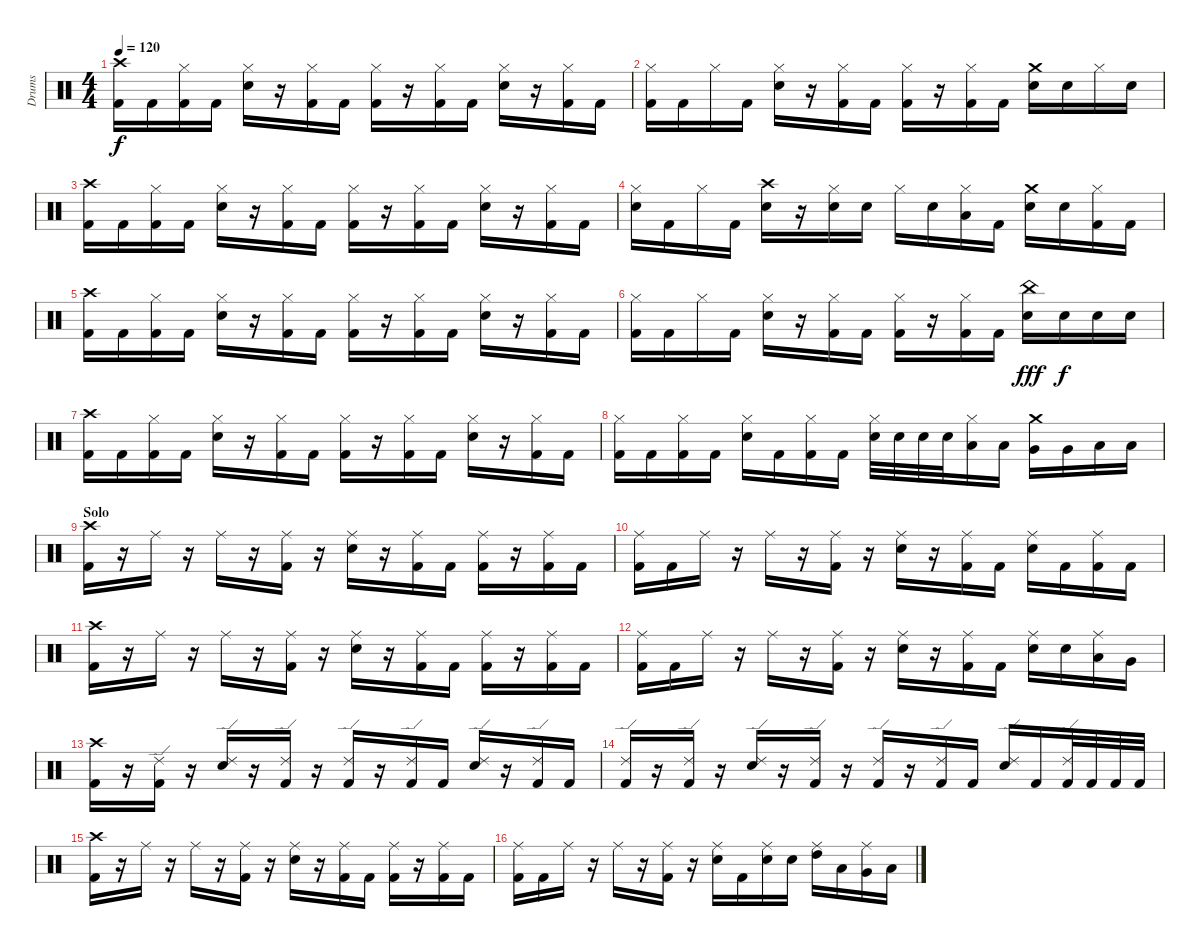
\track ("Drums" "Drums") {instrument percussion}
\staff {score}
\articulation defaults
\ts (4 4)
\tempo 120
\clef neutral
\ks c
("Crash high (hit)" "Kick (hit) 2").16{dy f} "Kick (hit) 2".16 ("Hi-Hat (closed)" "Kick (hit) 2").16 "Kick (hit) 2".16 ("Hi-Hat (closed)" "Snare (hit) 2").16 r.16 ("Hi-Hat (closed)" "Kick (hit) 2").16 "Kick (hit) 2".16 ("Hi-Hat (closed)" "Kick (hit) 2").16 r.16 ("Hi-Hat (closed)" "Kick (hit) 2").16 "Kick (hit) 2".16 ("Hi-Hat (closed)" "Snare (hit) 2").16 r.16 ("Hi-Hat (closed)" "Kick (hit) 2").16 "Kick (hit) 2".16 |
("Hi-Hat (closed)" "Kick (hit) 2").16 "Kick (hit) 2".16 "Hi-Hat (closed)".16 "Kick (hit) 2".16 ("Hi-Hat (closed)" "Snare (hit) 2").16 r.16 ("Hi-Hat (closed)" "Kick (hit) 2").16 "Kick (hit) 2".16 ("Hi-Hat (closed)" "Kick (hit) 2").16 r.16 ("Hi-Hat (closed)" "Kick (hit) 2").16 "Kick (hit) 2".16 ("Crash medium (hit)" "Snare (hit) 2").16 "Snare (hit) 2".16 "Hi-Hat (closed)".16 "Snare (hit) 2".16 |
("Crash high (hit)" "Kick (hit) 2").16 "Kick (hit) 2".16 ("Hi-Hat (closed)" "Kick (hit) 2").16 "Kick (hit) 2".16 ("Hi-Hat (closed)" "Snare (hit) 2").16 r.16 ("Hi-Hat (closed)" "Kick (hit) 2").16 "Kick (hit) 2".16 ("Hi-Hat (closed)" "Kick (hit) 2").16 r.16 ("Hi-Hat (closed)" "Kick (hit) 2").16 "Kick (hit) 2".16 ("Hi-Hat (closed)" "Snare (hit) 2").16 r.16 ("Hi-Hat (closed)" "Kick (hit) 2").16 "Kick (hit) 2".16 |
("Hi-Hat (closed)" "Snare (hit) 2").16 "Kick (hit) 2".16 "Hi-Hat (closed)".16 "Kick (hit) 2".16 ("Crash high (hit)" "Snare (hit) 2").16 r.16 ("Hi-Hat (closed)" "Snare (hit) 2").16 "Snare (hit) 2".16 "Hi-Hat (closed)".16 "Snare (hit) 2".16 ("Hi-Hat (closed)" "Low Tom (hit)").16 "Kick (hit) 2".16 ("Crash medium (hit)" "Snare (hit) 2").16 "Snare (hit) 2".16 ("Hi-Hat (closed)" "Kick (hit) 2").16 "Kick (hit) 2".16 |
("Crash high (hit)" "Kick (hit) 2").16 "Kick (hit) 2".16 ("Hi-Hat (closed)" "Kick (hit) 2").16 "Kick (hit) 2".16 ("Hi-Hat (closed)" "Snare (hit) 2").16 r.16 ("Hi-Hat (closed)" "Kick (hit) 2").16 "Kick (hit) 2".16 ("Hi-Hat (closed)" "Kick (hit) 2").16 r.16 ("Hi-Hat (closed)" "Kick (hit) 2").16 "Kick (hit) 2".16 ("Hi-Hat (closed)" "Snare (hit) 2").16 r.16 ("Hi-Hat (closed)" "Kick (hit) 2").16 "Kick (hit) 2".16 |
("Hi-Hat (closed)" "Kick (hit) 2").16 "Kick (hit) 2".16 "Hi-Hat (closed)".16 "Kick (hit) 2".16 ("Hi-Hat (closed)" "Snare (hit) 2").16 r.16 ("Hi-Hat (closed)" "Kick (hit) 2").16 "Kick (hit) 2".16 ("Hi-Hat (closed)" "Kick (hit) 2").16 r.16 ("Hi-Hat (closed)" "Kick (hit) 2").16 "Kick (hit) 2".16 ("China (hit)" "Snare (hit) 2").16{dy fff} "Snare (hit) 2".16{dy f} "Snare (hit) 2".16 "Snare (hit) 2".16 |
("Crash high (hit)" "Kick (hit) 2").16 "Kick (hit) 2".16 ("Hi-Hat (closed)" "Kick (hit) 2").16 "Kick (hit) 2".16 ("Hi-Hat (closed)" "Snare (hit) 2").16 r.16 ("Hi-Hat (closed)" "Kick (hit) 2").16 "Kick (hit) 2".16 ("Hi-Hat (closed)" "Kick (hit) 2").16 r.16 ("Hi-Hat (closed)" "Kick (hit) 2").16 "Kick (hit) 2".16 ("Hi-Hat (closed)" "Snare (hit) 2").16 r.16 ("Hi-Hat (closed)" "Kick (hit) 2").16 "Kick (hit) 2".16 |
("Hi-Hat (closed)" "Kick (hit) 2").16 "Kick (hit) 2".16 ("Hi-Hat (closed)" "Kick (hit) 2").16 "Kick (hit) 2".16 ("Hi-Hat (closed)" "Snare (hit) 2").16 "Kick (hit) 2".16 ("Hi-Hat (closed)" "Kick (hit) 2").16 "Kick (hit) 2".16 ("Hi-Hat (closed)" "Snare (hit) 2").32 "Snare (hit) 2".32 "Snare (hit) 2".32 "Snare (hit) 2".32 ("Hi-Hat (closed)" "Low Tom (hit)").16 "Low Tom (hit)".16 ("Crash medium (hit)" "Very Low Tom (hit)").16 "Very Low Tom (hit)".16 "Low Floor Tom (hit)".16 "Low Floor Tom (hit)".16 |
\section ("" "Solo")
("Crash high (hit)" "Kick (hit) 2").16 r.16 "Ride (middle)".16 r.16 "Ride (middle)".16 r.16 ("Ride (middle)" "Kick (hit) 2").16 r.16 ("Ride (middle)" "Snare (hit) 2").16 r.16 ("Ride (middle)" "Kick (hit) 2").16 "Kick (hit) 2".16 ("Ride (middle)" "Kick (hit) 2").16 r.16 ("Ride (middle)" "Kick (hit) 2").16 "Kick (hit) 2".16 |
("Ride (middle)" "Kick (hit) 2").16 "Kick (hit) 2".16 "Ride (middle)".16 r.16 "Ride (middle)".16 r.16 ("Ride (middle)" "Kick (hit) 2").16 r.16 ("Ride (middle)" "Snare (hit) 2").16 r.16 ("Ride (middle)" "Kick (hit) 2").16 "Kick (hit) 2".16 ("Ride (middle)" "Snare (hit) 2").16 "Kick (hit) 2".16 ("Ride (middle)" "Kick (hit) 2").16 "Kick (hit) 2".16 |
("Crash high (hit)" "Kick (hit) 2").16 r.16 "Ride (middle)".16 r.16 "Ride (middle)".16 r.16 ("Ride (middle)" "Kick (hit) 2").16 r.16 ("Ride (middle)" "Snare (hit) 2").16 r.16 ("Ride (middle)" "Kick (hit) 2").16 "Kick (hit) 2".16 ("Ride (middle)" "Kick (hit) 2").16 r.16 ("Ride (middle)" "Kick (hit) 2").16 "Kick (hit) 2".16 |
("Ride (middle)" "Kick (hit) 2").16 "Kick (hit) 2".16 "Ride (middle)".16 r.16 "Ride (middle)".16 r.16 ("Ride (middle)" "Kick (hit) 2").16 r.16 ("Ride (middle)" "Snare (hit) 2").16 r.16 ("Ride (middle)" "Kick (hit) 2").16 "Kick (hit) 2".16 ("Ride (middle)" "Snare (hit) 2").16 "Snare (hit) 2".16 ("Ride (middle)" "Low Tom (hit)").16 "Very Low Tom (hit)".16 |
("Crash high (hit)" "Kick (hit) 2").16 r.16 ("Ride (edge) 2" "Kick (hit) 2").16 r.16 ("Ride (edge) 2" "Snare (hit) 2").16 r.16 ("Ride (edge) 2" "Kick (hit) 2").16 r.16 ("Ride (edge) 2" "Kick (hit) 2").16 r.16 ("Ride (edge) 2" "Kick (hit) 2").16 "Kick (hit) 2".16 ("Ride (edge) 2" "Snare (hit) 2").16 r.16 ("Ride (edge) 2" "Kick (hit) 2").16 "Kick (hit) 2".16 |
("Ride (edge) 2" "Kick (hit) 2").16 r.16 ("Ride (edge) 2" "Kick (hit) 2").16 r.16 ("Ride (edge) 2" "Snare (hit) 2").16 r.16 ("Ride (edge) 2" "Kick (hit) 2").16 r.16 ("Ride (edge) 2" "Kick (hit) 2").16 r.16 ("Ride (edge) 2" "Kick (hit) 2").16 "Kick (hit) 2".16 ("Ride (edge) 2" "Snare (hit) 2").16 "Kick (hit) 2".16 ("Ride (edge) 2" "Kick (hit) 2").32 "Kick (hit) 2".32 "Kick (hit) 2".32 "Kick (hit) 2".32 |
("Crash high (hit)" "Kick (hit) 2").16 r.16 "Ride (middle)".16 r.16 "Ride (middle)".16 r.16 ("Ride (middle)" "Kick (hit) 2").16 r.16 ("Ride (middle)" "Snare (hit) 2").16 r.16 ("Ride (middle)" "Kick (hit) 2").16 "Kick (hit) 2".16 ("Ride (middle)" "Kick (hit) 2").16 r.16 ("Ride (middle)" "Kick (hit) 2").16 "Kick (hit) 2".16 |
("Ride (middle)" "Kick (hit) 2").16 "Kick (hit) 2".16 "Ride (middle)".16 r.16 "Ride (middle)".16 r.16 ("Ride (middle)" "Kick (hit) 2").16 r.16 ("Ride (middle)" "Snare (hit) 2").16 "Kick (hit) 2".16 ("Ride (middle)" "Snare (hit) 2").16 "Snare (hit) 2".16 ("Ride (middle)" "High Tom (hit)").16 "Low Tom (hit)".16 ("Ride (middle)" "Very Low Tom (hit)").16 "Low Floor Tom (hit)".16
